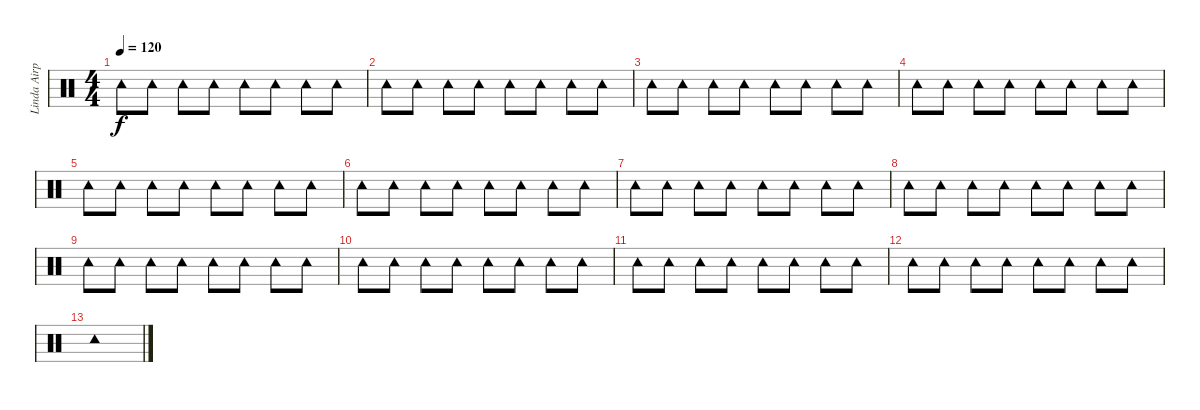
\track ("Linda Airplane" "Linda Airp") {instrument percussion}
\staff {score}
\articulation defaults
\ts (4 4)
\tempo 120
\clef neutral
\ks c "Tambourine (hit)".8{dy f} "Tambourine (hit)".8 "Tambourine (hit)".8 "Tambourine (hit)".8 "Tambourine (hit)".8 "Tambourine (hit)".8 "Tambourine (hit)".8 "Tambourine (hit)".8
|
"Tambourine (hit)".8 "Tambourine (hit)".8 "Tambourine (hit)".8 "Tambourine (hit)".8 "Tambourine (hit)".8 "Tambourine (hit)".8 "Tambourine (hit)".8 "Tambourine (hit)".8 |
"Tambourine (hit)".8 "Tambourine (hit)".8 "Tambourine (hit)".8 "Tambourine (hit)".8 "Tambourine (hit)".8 "Tambourine (hit)".8 "Tambourine (hit)".8 "Tambourine (hit)".8 |
"Tambourine (hit)".8 "Tambourine (hit)".8 "Tambourine (hit)".8 "Tambourine (hit)".8 "Tambourine (hit)".8 "Tambourine (hit)".8 "Tambourine (hit)".8 "Tambourine (hit)".8 |
"Tambourine (hit)".8 "Tambourine (hit)".8 "Tambourine (hit)".8 "Tambourine (hit)".8 "Tambourine (hit)".8 "Tambourine (hit)".8 "Tambourine (hit)".8 "Tambourine (hit)".8 |
"Tambourine (hit)".8 "Tambourine (hit)".8 "Tambourine (hit)".8 "Tambourine (hit)".8 "Tambourine (hit)".8 "Tambourine (hit)".8 "Tambourine (hit)".8 "Tambourine (hit)".8 |
"Tambourine (hit)".8 "Tambourine (hit)".8 "Tambourine (hit)".8 "Tambourine (hit)".8 "Tambourine (hit)".8 "Tambourine (hit)".8 "Tambourine (hit)".8 "Tambourine (hit)".8 |
"Tambourine (hit)".8 "Tambourine (hit)".8 "Tambourine (hit)".8 "Tambourine (hit)".8 "Tambourine (hit)".8 "Tambourine (hit)".8 "Tambourine (hit)".8 "Tambourine (hit)".8 |
"Tambourine (hit)".8 "Tambourine (hit)".8 "Tambourine (hit)".8 "Tambourine (hit)".8 "Tambourine (hit)".8 "Tambourine (hit)".8 "Tambourine (hit)".8 "Tambourine (hit)".8 |
"Tambourine (hit)".8 "Tambourine (hit)".8 "Tambourine (hit)".8 "Tambourine (hit)".8 "Tambourine (hit)".8 "Tambourine (hit)".8 "Tambourine (hit)".8 "Tambourine (hit)".8 |
"Tambourine (hit)".8 "Tambourine (hit)".8 "Tambourine (hit)".8 "Tambourine (hit)".8 "Tambourine (hit)".8 "Tambourine (hit)".8 "Tambourine (hit)".8 "Tambourine (hit)".8 |
"Tambourine (hit)".8 "Tambourine (hit)".8 "Tambourine (hit)".8 "Tambourine (hit)".8 "Tambourine (hit)".8 "Tambourine (hit)".8 "Tambourine (hit)".8 "Tambourine (hit)".8 |
"Tambourine (hit)".1
